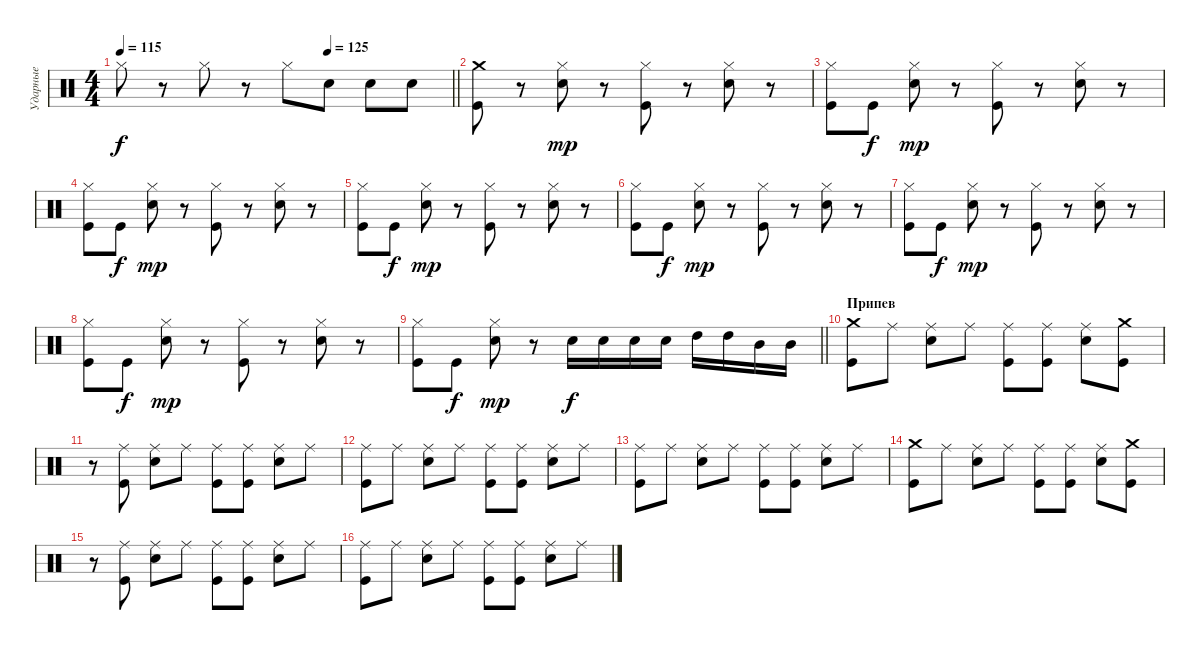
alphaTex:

\track ("Ударные" "Ударные") {instrument percussion}
\staff {score}
\articulation defaults
\ts (4 4)
\tempo 115
\tempo (125 0.625)
\clef neutral
\barLineRight lightlight
\ks c "Hi-Hat (closed)".8{dy f}
r.8 "Hi-Hat (closed)".8 r.8 "Hi-Hat (closed)".8 "Electric Snare (hit)".8 "Electric Snare (hit)".8 "Electric Snare (hit)".8 |
("Crash medium (hit)" "Kick (hit)").8 r.8 ("Hi-Hat (closed)" "Electric Snare (hit)").8{dy mp} r.8 ("Hi-Hat (closed)" "Kick (hit)").8 r.8 ("Hi-Hat (closed)" "Electric Snare (hit)").8 r.8 |
("Hi-Hat (closed)" "Kick (hit)").8 "Kick (hit)".8{dy f} ("Hi-Hat (closed)" "Electric Snare (hit)").8{dy mp} r.8 ("Hi-Hat (closed)" "Kick (hit)").8 r.8 ("Hi-Hat (closed)" "Electric Snare (hit)").8 r.8 |
("Hi-Hat (closed)" "Kick (hit)").8 "Kick (hit)".8{dy f} ("Hi-Hat (closed)" "Electric Snare (hit)").8{dy mp} r.8 ("Hi-Hat (closed)" "Kick (hit)").8 r.8 ("Hi-Hat (closed)" "Electric Snare (hit)").8 r.8 |
("Hi-Hat (closed)" "Kick (hit)").8 "Kick (hit)".8{dy f} ("Hi-Hat (closed)" "Electric Snare (hit)").8{dy mp} r.8 ("Hi-Hat (closed)" "Kick (hit)").8 r.8 ("Hi-Hat (closed)" "Electric Snare (hit)").8 r.8 |
("Hi-Hat (closed)" "Kick (hit)").8 "Kick (hit)".8{dy f} ("Hi-Hat (closed)" "Electric Snare (hit)").8{dy mp} r.8 ("Hi-Hat (closed)" "Kick (hit)").8 r.8 ("Hi-Hat (closed)" "Electric Snare (hit)").8 r.8 |
("Hi-Hat (closed)" "Kick (hit)").8 "Kick (hit)".8{dy f} ("Hi-Hat (closed)" "Electric Snare (hit)").8{dy mp} r.8 ("Hi-Hat (closed)" "Kick (hit)").8 r.8 ("Hi-Hat (closed)" "Electric Snare (hit)").8 r.8 |
("Hi-Hat (closed)" "Kick (hit)").8 "Kick (hit)".8{dy f} ("Hi-Hat (closed)" "Electric Snare (hit)").8{dy mp} r.8 ("Hi-Hat (closed)" "Kick (hit)").8 r.8 ("Hi-Hat (closed)" "Electric Snare (hit)").8 r.8 |
\barLineRight lightlight
("Hi-Hat (closed)" "Kick (hit)").8 "Kick (hit)".8{dy f} ("Hi-Hat (closed)" "Electric Snare (hit)").8{dy mp} r.8 "Electric Snare (hit)".16{dy f} "Electric Snare (hit)".16 "Electric Snare (hit)".16 "Electric Snare (hit)".16 "High Tom (hit)".16 "High Tom (hit)".16 "Mid Tom (hit)".16 "Mid Tom (hit)".16 |
\section ("" "Припев")
("Crash medium (hit)" "Kick (hit)").8 "Ride (middle)".8 ("Ride (middle)" "Electric Snare (hit)").8 "Ride (middle)".8 ("Ride (middle)" "Kick (hit)").8 ("Ride (middle)" "Kick (hit)").8 ("Ride (middle)" "Electric Snare (hit)").8 ("Crash medium (hit)" "Kick (hit)").8 |
r.8 ("Ride (middle)" "Kick (hit)").8 ("Ride (middle)" "Electric Snare (hit)").8 "Ride (middle)".8 ("Ride (middle)" "Kick (hit)").8 ("Ride (middle)" "Kick (hit)").8 ("Ride (middle)" "Electric Snare (hit)").8 "Ride (middle)".8 |
("Ride (middle)" "Kick (hit)").8 "Ride (middle)".8 ("Ride (middle)" "Electric Snare (hit)").8 "Ride (middle)".8 ("Ride (middle)" "Kick (hit)").8 ("Ride (middle)" "Kick (hit)").8 ("Ride (middle)" "Electric Snare (hit)").8 "Ride (middle)".8 |
("Ride (middle)" "Kick (hit)").8 "Ride (middle)".8 ("Ride (middle)" "Electric Snare (hit)").8 "Ride (middle)".8 ("Ride (middle)" "Kick (hit)").8 ("Ride (middle)" "Kick (hit)").8 ("Ride (middle)" "Electric Snare (hit)").8 "Ride (middle)".8 |
("Crash medium (hit)" "Kick (hit)").8 "Ride (middle)".8 ("Ride (middle)" "Electric Snare (hit)").8 "Ride (middle)".8 ("Ride (middle)" "Kick (hit)").8 ("Ride (middle)" "Kick (hit)").8 ("Ride (middle)" "Electric Snare (hit)").8 ("Crash medium (hit)" "Kick (hit)").8 |
r.8 ("Ride (middle)" "Kick (hit)").8 ("Ride (middle)" "Electric Snare (hit)").8 "Ride (middle)".8 ("Ride (middle)" "Kick (hit)").8 ("Ride (middle)" "Kick (hit)").8 ("Ride (middle)" "Electric Snare (hit)").8 "Ride (middle)".8 |
("Ride (middle)" "Kick (hit)").8 "Ride (middle)".8 ("Ride (middle)" "Electric Snare (hit)").8 "Ride (middle)".8 ("Ride (middle)" "Kick (hit)").8 ("Ride (middle)" "Kick (hit)").8 ("Ride (middle)" "Electric Snare (hit)").8 "Ride (middle)".8
